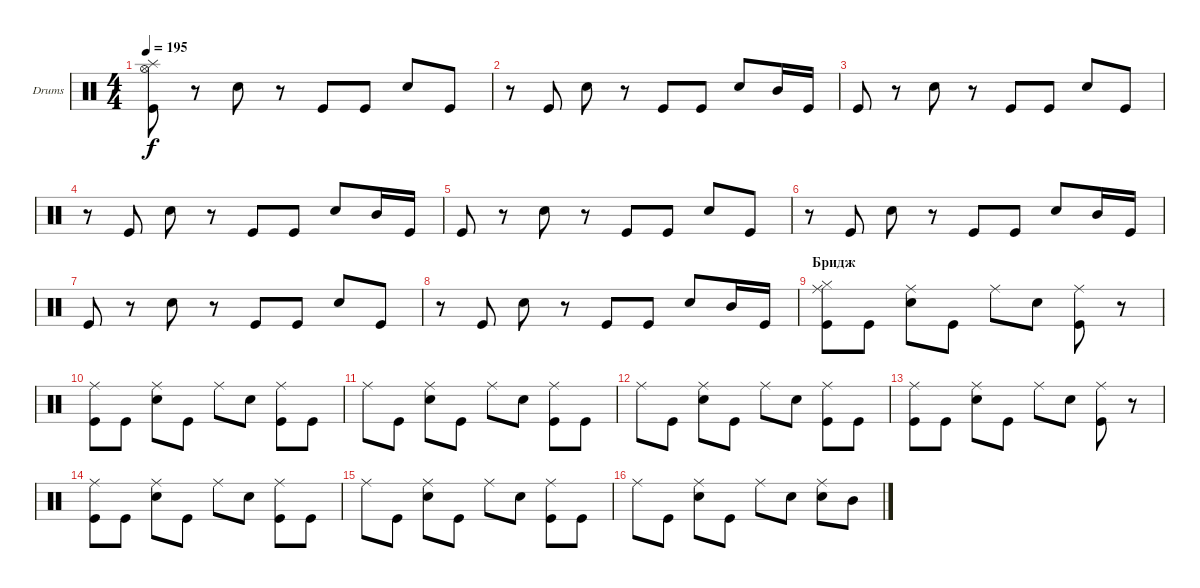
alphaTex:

\defaultSystemsLayout 4
\bracketExtendMode groupsimilarinstruments
\firstSystemTrackNameOrientation horizontal
\otherSystemsTrackNameOrientation horizontal
\track ("Drumkit" "Drums") {instrument percussion}
\staff {score}
\articulation defaults
\ts (4 4)
\tempo 195
\clef neutral
\ks c
("Kick (hit)" "Hi-Hat (open)" "Splash (hit)").8{dy f} r.8 "Snare (hit) 2".8 r.8 "Kick (hit)".8 "Kick (hit)".8 "Snare (hit) 2".8 "Kick (hit)".8 |
r.8 "Kick (hit)".8 "Snare (hit) 2".8 r.8 "Kick (hit)".8 "Kick (hit)".8 "Snare (hit) 2".8 "Mid Tom (hit)".16 "Kick (hit)".16 |
"Kick (hit)".8 r.8 "Snare (hit) 2".8 r.8 "Kick (hit)".8 "Kick (hit)".8 "Snare (hit) 2".8 "Kick (hit)".8 |
r.8 "Kick (hit)".8 "Snare (hit) 2".8 r.8 "Kick (hit)".8 "Kick (hit)".8 "Snare (hit) 2".8 "Mid Tom (hit)".16 "Kick (hit)".16 |
"Kick (hit)".8 r.8 "Snare (hit) 2".8 r.8 "Kick (hit)".8 "Kick (hit)".8 "Snare (hit) 2".8 "Kick (hit)".8 |
r.8 "Kick (hit)".8 "Snare (hit) 2".8 r.8 "Kick (hit)".8 "Kick (hit)".8 "Snare (hit) 2".8 "Mid Tom (hit)".16 "Kick (hit)".16 |
"Kick (hit)".8 r.8 "Snare (hit) 2".8 r.8 "Kick (hit)".8 "Kick (hit)".8 "Snare (hit) 2".8 "Kick (hit)".8 |
r.8 "Kick (hit)".8 "Snare (hit) 2".8 r.8 "Kick (hit)".8 "Kick (hit)".8 "Snare (hit) 2".8 "Mid Tom (hit)".16 "Kick (hit)".16 |
\section ("" "Бридж")
("Kick (hit)" "Ride (middle)" "Hi-Hat (closed)").8 "Kick (hit)".8 ("Ride (middle)" "Snare (hit) 2").8 "Kick (hit)".8 "Ride (middle)".8 "Snare (hit) 2".8 ("Ride (middle)" "Kick (hit)").8 r.8 |
("Kick (hit)" "Ride (middle)").8 "Kick (hit)".8 ("Ride (middle)" "Snare (hit) 2").8 "Kick (hit)".8 "Ride (middle)".8 "Snare (hit) 2".8 ("Ride (middle)" "Kick (hit)").8 "Kick (hit)".8 |
"Ride (middle)".8 "Kick (hit)".8 ("Ride (middle)" "Snare (hit) 2").8 "Kick (hit)".8 "Ride (middle)".8 "Snare (hit) 2".8 ("Ride (middle)" "Kick (hit)").8 "Kick (hit)".8 |
"Ride (middle)".8 "Kick (hit)".8 ("Ride (middle)" "Snare (hit) 2").8 "Kick (hit)".8 "Ride (middle)".8 "Snare (hit) 2".8 ("Ride (middle)" "Kick (hit)").8 "Kick (hit)".8 |
("Kick (hit)" "Ride (middle)").8 "Kick (hit)".8 ("Ride (middle)" "Snare (hit) 2").8 "Kick (hit)".8 "Ride (middle)".8 "Snare (hit) 2".8 ("Ride (middle)" "Kick (hit)").8 r.8 |
("Kick (hit)" "Ride (middle)").8 "Kick (hit)".8 ("Ride (middle)" "Snare (hit) 2").8 "Kick (hit)".8 "Ride (middle)".8 "Snare (hit) 2".8 ("Ride (middle)" "Kick (hit)").8 "Kick (hit)".8 |
"Ride (middle)".8 "Kick (hit)".8 ("Ride (middle)" "Snare (hit) 2").8 "Kick (hit)".8 "Ride (middle)".8 "Snare (hit) 2".8 ("Ride (middle)" "Kick (hit)").8 "Kick (hit)".8 |
"Ride (middle)".8 "Kick (hit)".8 ("Ride (middle)" "Snare (hit) 2").8 "Kick (hit)".8 "Ride (middle)".8 "Snare (hit) 2".8 ("Ride (middle)" "Snare (hit) 2").8 "Mid Tom (hit)".8
